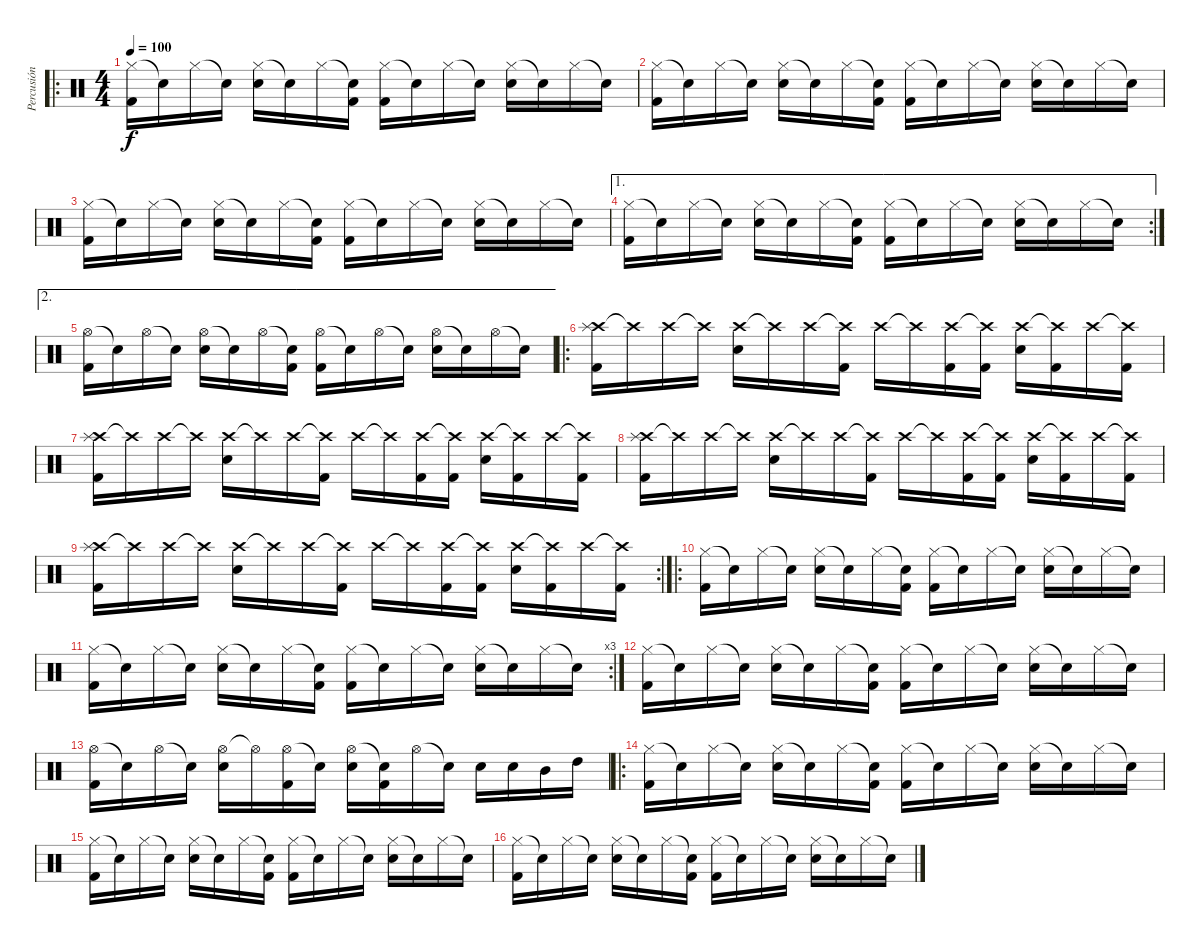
\track ("Percusión" "Percusión") {instrument percussion}
\staff {score}
\articulation defaults
\ro
\ts (4 4)
\tempo 100
\clef neutral
\ks c
("Hi-Hat (closed)" "Kick (hit) 2").16{dy f} "Snare (hit)"{t}.16 "Hi-Hat (closed)".16 "Snare (hit)"{t}.16 ("Hi-Hat (closed)" "Electric Snare (hit)").16 "Snare (hit)"{t}.16 "Hi-Hat (closed)".16 ("Snare (hit)"{t} "Kick (hit) 2").16 ("Hi-Hat (closed)" "Kick (hit) 2").16 "Snare (hit)"{t}.16 "Hi-Hat (closed)".16 "Snare (hit)"{t}.16 ("Hi-Hat (closed)" "Electric Snare (hit)").16 "Snare (hit)"{t}.16 "Hi-Hat (closed)".16 "Snare (hit)"{t}.16 |
("Hi-Hat (closed)" "Kick (hit) 2").16 "Snare (hit)"{t}.16 "Hi-Hat (closed)".16 "Snare (hit)"{t}.16 ("Hi-Hat (closed)" "Electric Snare (hit)").16 "Snare (hit)"{t}.16 "Hi-Hat (closed)".16 ("Snare (hit)"{t} "Kick (hit) 2").16 ("Hi-Hat (closed)" "Kick (hit) 2").16 "Snare (hit)"{t}.16 "Hi-Hat (closed)".16 "Snare (hit)"{t}.16 ("Hi-Hat (closed)" "Electric Snare (hit)").16 "Snare (hit)"{t}.16 "Hi-Hat (closed)".16 "Snare (hit)"{t}.16 |
("Hi-Hat (closed)" "Kick (hit) 2").16 "Snare (hit)"{t}.16 "Hi-Hat (closed)".16 "Snare (hit)"{t}.16 ("Hi-Hat (closed)" "Electric Snare (hit)").16 "Snare (hit)"{t}.16 "Hi-Hat (closed)".16 ("Snare (hit)"{t} "Kick (hit) 2").16 ("Hi-Hat (closed)" "Kick (hit) 2").16 "Snare (hit)"{t}.16 "Hi-Hat (closed)".16 "Snare (hit)"{t}.16 ("Hi-Hat (closed)" "Electric Snare (hit)").16 "Snare (hit)"{t}.16 "Hi-Hat (closed)".16 "Snare (hit)"{t}.16 |
\ae 1
\rc 2
("Hi-Hat (closed)" "Kick (hit) 2").16 "Snare (hit)"{t}.16 "Hi-Hat (closed)".16 "Snare (hit)"{t}.16 ("Hi-Hat (closed)" "Electric Snare (hit)").16 "Snare (hit)"{t}.16 "Hi-Hat (closed)".16 ("Snare (hit)"{t} "Kick (hit) 2").16 ("Hi-Hat (closed)" "Kick (hit) 2").16 "Snare (hit)"{t}.16 "Hi-Hat (closed)".16 "Snare (hit)"{t}.16 ("Hi-Hat (closed)" "Electric Snare (hit)").16 "Snare (hit)"{t}.16 "Hi-Hat (closed)".16 "Snare (hit)"{t}.16 |
\ae 2
("Hi-Hat (open)" "Kick (hit) 2").16 "Snare (hit)"{t}.16 "Hi-Hat (open)".16 "Snare (hit)"{t}.16 ("Hi-Hat (open)" "Electric Snare (hit)").16 "Snare (hit)"{t}.16 "Hi-Hat (open)".16 ("Snare (hit)"{t} "Kick (hit) 2").16 ("Hi-Hat (open)" "Kick (hit) 2").16 "Snare (hit)"{t}.16 "Hi-Hat (open)".16 "Snare (hit)"{t}.16 ("Hi-Hat (open)" "Electric Snare (hit)").16 "Snare (hit)"{t}.16 "Hi-Hat (open)".16 "Snare (hit)"{t}.16 |
\ro
("Crash high (hit)" "Splash (hit)" "Kick (hit) 2").16 "Crash high (hit)"{t}.16 "Crash high (hit)".16 "Crash high (hit)"{t}.16 ("Crash high (hit)" "Electric Snare (hit)").16 "Crash high (hit)"{t}.16 "Crash high (hit)".16 ("Crash high (hit)"{t} "Kick (hit) 2").16 "Crash high (hit)".16 "Crash high (hit)"{t}.16 ("Crash high (hit)" "Kick (hit) 2").16 ("Crash high (hit)"{t} "Kick (hit) 2").16 ("Crash high (hit)" "Electric Snare (hit)").16 ("Crash high (hit)"{t} "Kick (hit) 2").16 "Crash high (hit)".16 ("Crash high (hit)"{t} "Kick (hit) 2").16 |
("Crash high (hit)" "Splash (hit)" "Kick (hit) 2").16 "Crash high (hit)"{t}.16 "Crash high (hit)".16 "Crash high (hit)"{t}.16 ("Crash high (hit)" "Electric Snare (hit)").16 "Crash high (hit)"{t}.16 "Crash high (hit)".16 ("Crash high (hit)"{t} "Kick (hit) 2").16 "Crash high (hit)".16 "Crash high (hit)"{t}.16 ("Crash high (hit)" "Kick (hit) 2").16 ("Crash high (hit)"{t} "Kick (hit) 2").16 ("Crash high (hit)" "Electric Snare (hit)").16 ("Crash high (hit)"{t} "Kick (hit) 2").16 "Crash high (hit)".16 ("Crash high (hit)"{t} "Kick (hit) 2").16 |
("Crash high (hit)" "Splash (hit)" "Kick (hit) 2").16 "Crash high (hit)"{t}.16 "Crash high (hit)".16 "Crash high (hit)"{t}.16 ("Crash high (hit)" "Electric Snare (hit)").16 "Crash high (hit)"{t}.16 "Crash high (hit)".16 ("Crash high (hit)"{t} "Kick (hit) 2").16 "Crash high (hit)".16 "Crash high (hit)"{t}.16 ("Crash high (hit)" "Kick (hit) 2").16 ("Crash high (hit)"{t} "Kick (hit) 2").16 ("Crash high (hit)" "Electric Snare (hit)").16 ("Crash high (hit)"{t} "Kick (hit) 2").16 "Crash high (hit)".16 ("Crash high (hit)"{t} "Kick (hit) 2").16 |
\rc 2
("Crash high (hit)" "Splash (hit)" "Kick (hit) 2").16 "Crash high (hit)"{t}.16 "Crash high (hit)".16 "Crash high (hit)"{t}.16 ("Crash high (hit)" "Electric Snare (hit)").16 "Crash high (hit)"{t}.16 "Crash high (hit)".16 ("Crash high (hit)"{t} "Kick (hit) 2").16 "Crash high (hit)".16 "Crash high (hit)"{t}.16 ("Crash high (hit)" "Kick (hit) 2").16 ("Crash high (hit)"{t} "Kick (hit) 2").16 ("Crash high (hit)" "Electric Snare (hit)").16 ("Crash high (hit)"{t} "Kick (hit) 2").16 "Crash high (hit)".16 ("Crash high (hit)"{t} "Kick (hit) 2").16 |
\ro
("Hi-Hat (closed)" "Kick (hit) 2").16 "Snare (hit)"{t}.16 "Hi-Hat (closed)".16 "Snare (hit)"{t}.16 ("Hi-Hat (closed)" "Electric Snare (hit)").16 "Snare (hit)"{t}.16 "Hi-Hat (closed)".16 ("Snare (hit)"{t} "Kick (hit) 2").16 ("Hi-Hat (closed)" "Kick (hit) 2").16 "Snare (hit)"{t}.16 "Hi-Hat (closed)".16 "Snare (hit)"{t}.16 ("Hi-Hat (closed)" "Electric Snare (hit)").16 "Snare (hit)"{t}.16 "Hi-Hat (closed)".16 "Snare (hit)"{t}.16 |
\rc 3
("Hi-Hat (closed)" "Kick (hit) 2").16 "Snare (hit)"{t}.16 "Hi-Hat (closed)".16 "Snare (hit)"{t}.16 ("Hi-Hat (closed)" "Electric Snare (hit)").16 "Snare (hit)"{t}.16 "Hi-Hat (closed)".16 ("Snare (hit)"{t} "Kick (hit) 2").16 ("Hi-Hat (closed)" "Kick (hit) 2").16 "Snare (hit)"{t}.16 "Hi-Hat (closed)".16 "Snare (hit)"{t}.16 ("Hi-Hat (closed)" "Electric Snare (hit)").16 "Snare (hit)"{t}.16 "Hi-Hat (closed)".16 "Snare (hit)"{t}.16 |
("Hi-Hat (closed)" "Kick (hit) 2").16 "Snare (hit)"{t}.16 "Hi-Hat (closed)".16 "Snare (hit)"{t}.16 ("Hi-Hat (closed)" "Electric Snare (hit)").16 "Snare (hit)"{t}.16 "Hi-Hat (closed)".16 ("Snare (hit)"{t} "Kick (hit) 2").16 ("Hi-Hat (closed)" "Kick (hit) 2").16 "Snare (hit)"{t}.16 "Hi-Hat (closed)".16 "Snare (hit)"{t}.16 ("Hi-Hat (closed)" "Electric Snare (hit)").16 "Snare (hit)"{t}.16 "Hi-Hat (closed)".16 "Snare (hit)"{t}.16 |
("Hi-Hat (open)" "Kick (hit) 2").16 "Snare (hit)"{t}.16 "Hi-Hat (open)".16 "Snare (hit)"{t}.16 ("Hi-Hat (open)" "Electric Snare (hit)").16 "Hi-Hat (open)"{t}.16 ("Hi-Hat (open)" "Kick (hit) 2").16 "Snare (hit)"{t}.16 ("Hi-Hat (open)" "Electric Snare (hit)").16 ("Snare (hit)"{t} "Kick (hit) 2").16 "Hi-Hat (open)".16 "Snare (hit)"{t}.16 "Electric Snare (hit)".16 "Electric Snare (hit)".16 "Mid Tom (hit)".16 "High Tom (hit)".16 |
\ro
("Hi-Hat (closed)" "Kick (hit) 2").16 "Snare (hit)"{t}.16 "Hi-Hat (closed)".16 "Snare (hit)"{t}.16 ("Hi-Hat (closed)" "Electric Snare (hit)").16 "Snare (hit)"{t}.16 "Hi-Hat (closed)".16 ("Snare (hit)"{t} "Kick (hit) 2").16 ("Hi-Hat (closed)" "Kick (hit) 2").16 "Snare (hit)"{t}.16 "Hi-Hat (closed)".16 "Snare (hit)"{t}.16 ("Hi-Hat (closed)" "Electric Snare (hit)").16 "Snare (hit)"{t}.16 "Hi-Hat (closed)".16 "Snare (hit)"{t}.16 |
("Hi-Hat (closed)" "Kick (hit) 2").16 "Snare (hit)"{t}.16 "Hi-Hat (closed)".16 "Snare (hit)"{t}.16 ("Hi-Hat (closed)" "Electric Snare (hit)").16 "Snare (hit)"{t}.16 "Hi-Hat (closed)".16 ("Snare (hit)"{t} "Kick (hit) 2").16 ("Hi-Hat (closed)" "Kick (hit) 2").16 "Snare (hit)"{t}.16 "Hi-Hat (closed)".16 "Snare (hit)"{t}.16 ("Hi-Hat (closed)" "Electric Snare (hit)").16 "Snare (hit)"{t}.16 "Hi-Hat (closed)".16 "Snare (hit)"{t}.16 |
("Hi-Hat (closed)" "Kick (hit) 2").16 "Snare (hit)"{t}.16 "Hi-Hat (closed)".16 "Snare (hit)"{t}.16 ("Hi-Hat (closed)" "Electric Snare (hit)").16 "Snare (hit)"{t}.16 "Hi-Hat (closed)".16 ("Snare (hit)"{t} "Kick (hit) 2").16 ("Hi-Hat (closed)" "Kick (hit) 2").16 "Snare (hit)"{t}.16 "Hi-Hat (closed)".16 "Snare (hit)"{t}.16 ("Hi-Hat (closed)" "Electric Snare (hit)").16 "Snare (hit)"{t}.16 "Hi-Hat (closed)".16 "Snare (hit)"{t}.16
